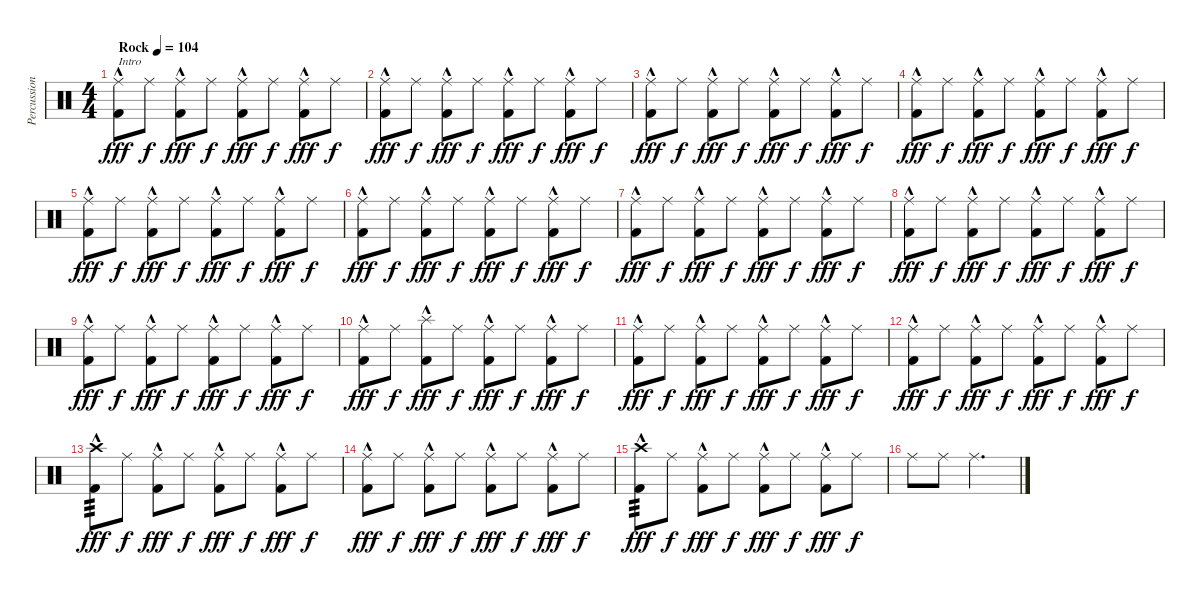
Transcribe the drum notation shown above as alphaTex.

\track ("Percussion" "Percussion") {instrument percussion}
\staff {score}
\articulation defaults
\ts (4 4)
\tempo (104 "Rock")
\clef neutral
\ks c
("Ride (middle)" "Kick (hit) 2"{hac}).8{txt "Intro" dy fff} "Ride (middle)".8{dy f} ("Ride (middle)" "Kick (hit) 2"{hac}).8{dy fff} "Ride (middle)".8{dy f} ("Ride (middle)" "Kick (hit) 2"{hac}).8{dy fff} "Ride (middle)".8{dy f} ("Ride (middle)" "Kick (hit) 2"{hac}).8{dy fff} "Ride (middle)".8{dy f} |
("Ride (middle)" "Kick (hit) 2"{hac}).8{dy fff} "Ride (middle)".8{dy f} ("Ride (middle)" "Kick (hit) 2"{hac}).8{dy fff} "Ride (middle)".8{dy f} ("Ride (middle)" "Kick (hit) 2"{hac}).8{dy fff} "Ride (middle)".8{dy f} ("Ride (middle)" "Kick (hit) 2"{hac}).8{dy fff} "Ride (middle)".8{dy f} |
("Ride (middle)" "Kick (hit) 2"{hac}).8{dy fff} "Ride (middle)".8{dy f} ("Ride (middle)" "Kick (hit) 2"{hac}).8{dy fff} "Ride (middle)".8{dy f} ("Ride (middle)" "Kick (hit) 2"{hac}).8{dy fff} "Ride (middle)".8{dy f} ("Ride (middle)" "Kick (hit) 2"{hac}).8{dy fff} "Ride (middle)".8{dy f} |
("Ride (middle)" "Kick (hit) 2"{hac}).8{dy fff} "Ride (middle)".8{dy f} ("Ride (middle)" "Kick (hit) 2"{hac}).8{dy fff} "Ride (middle)".8{dy f} ("Ride (middle)" "Kick (hit) 2"{hac}).8{dy fff} "Ride (middle)".8{dy f} ("Ride (middle)" "Kick (hit) 2"{hac}).8{dy fff} "Ride (middle)".8{dy f} |
("Ride (middle)" "Kick (hit) 2"{hac}).8{dy fff} "Ride (middle)".8{dy f} ("Ride (middle)" "Kick (hit) 2"{hac}).8{dy fff} "Ride (middle)".8{dy f} ("Ride (middle)" "Kick (hit) 2"{hac}).8{dy fff} "Ride (middle)".8{dy f} ("Ride (middle)" "Kick (hit) 2"{hac}).8{dy fff} "Ride (middle)".8{dy f} |
("Ride (middle)" "Kick (hit) 2"{hac}).8{dy fff} "Ride (middle)".8{dy f} ("Ride (middle)" "Kick (hit) 2"{hac}).8{dy fff} "Ride (middle)".8{dy f} ("Ride (middle)" "Kick (hit) 2"{hac}).8{dy fff} "Ride (middle)".8{dy f} ("Ride (middle)" "Kick (hit) 2"{hac}).8{dy fff} "Ride (middle)".8{dy f} |
("Ride (middle)" "Kick (hit) 2"{hac}).8{dy fff} "Ride (middle)".8{dy f} ("Ride (middle)" "Kick (hit) 2"{hac}).8{dy fff} "Ride (middle)".8{dy f} ("Ride (middle)" "Kick (hit) 2"{hac}).8{dy fff} "Ride (middle)".8{dy f} ("Ride (middle)" "Kick (hit) 2"{hac}).8{dy fff} "Ride (middle)".8{dy f} |
("Ride (middle)" "Kick (hit) 2"{hac}).8{dy fff} "Ride (middle)".8{dy f} ("Ride (middle)" "Kick (hit) 2"{hac}).8{dy fff} "Ride (middle)".8{dy f} ("Ride (middle)" "Kick (hit) 2"{hac}).8{dy fff} "Ride (middle)".8{dy f} ("Ride (middle)" "Kick (hit) 2"{hac}).8{dy fff} "Ride (middle)".8{dy f} |
("Ride (middle)" "Kick (hit) 2"{hac}).8{dy fff} "Ride (middle)".8{dy f} ("Ride (middle)" "Kick (hit) 2"{hac}).8{dy fff} "Ride (middle)".8{dy f} ("Ride (middle)" "Kick (hit) 2"{hac}).8{dy fff} "Ride (middle)".8{dy f} ("Ride (middle)" "Kick (hit) 2"{hac}).8{dy fff} "Ride (middle)".8{dy f} |
("Ride (middle)" "Kick (hit) 2"{hac}).8{dy fff} "Ride (middle)".8{dy f} ("Splash (hit)" "Kick (hit) 2"{hac}).8{dy fff} "Ride (middle)".8{dy f} ("Ride (middle)" "Kick (hit) 2"{hac}).8{dy fff} "Ride (middle)".8{dy f} ("Ride (middle)" "Kick (hit) 2"{hac}).8{dy fff} "Ride (middle)".8{dy f} |
("Ride (middle)" "Kick (hit) 2"{hac}).8{dy fff} "Ride (middle)".8{dy f} ("Ride (middle)" "Kick (hit) 2"{hac}).8{dy fff} "Ride (middle)".8{dy f} ("Ride (middle)" "Kick (hit) 2"{hac}).8{dy fff} "Ride (middle)".8{dy f} ("Ride (middle)" "Kick (hit) 2"{hac}).8{dy fff} "Ride (middle)".8{dy f} |
("Ride (middle)" "Kick (hit) 2"{hac}).8{dy fff} "Ride (middle)".8{dy f} ("Ride (middle)" "Kick (hit) 2"{hac}).8{dy fff} "Ride (middle)".8{dy f} ("Ride (middle)" "Kick (hit) 2"{hac}).8{dy fff} "Ride (middle)".8{dy f} ("Ride (middle)" "Kick (hit) 2"{hac}).8{dy fff} "Ride (middle)".8{dy f} |
("Crash high (hit)" "Kick (hit) 2"{hac}).8{tp 3 dy fff} "Ride (middle)".8{dy f} ("Ride (middle)" "Kick (hit) 2"{hac}).8{dy fff} "Ride (middle)".8{dy f} ("Ride (middle)" "Kick (hit) 2"{hac}).8{dy fff} "Ride (middle)".8{dy f} ("Ride (middle)" "Kick (hit) 2"{hac}).8{dy fff} "Ride (middle)".8{dy f} |
("Ride (middle)" "Kick (hit) 2"{hac}).8{dy fff} "Ride (middle)".8{dy f} ("Ride (middle)" "Kick (hit) 2"{hac}).8{dy fff} "Ride (middle)".8{dy f} ("Ride (middle)" "Kick (hit) 2"{hac}).8{dy fff} "Ride (middle)".8{dy f} ("Ride (middle)" "Kick (hit) 2"{hac}).8{dy fff} "Ride (middle)".8{dy f} |
("Crash high (hit)" "Kick (hit) 2"{hac}).8{tp 3 dy fff} "Ride (middle)".8{dy f} ("Ride (middle)" "Kick (hit) 2"{hac}).8{dy fff} "Ride (middle)".8{dy f} ("Ride (middle)" "Kick (hit) 2"{hac}).8{dy fff} "Ride (middle)".8{dy f} ("Ride (middle)" "Kick (hit) 2"{hac}).8{dy fff} "Ride (middle)".8{dy f} |
"Ride (middle)".8 "Ride (middle)".8 "Ride (middle)".2{d}
